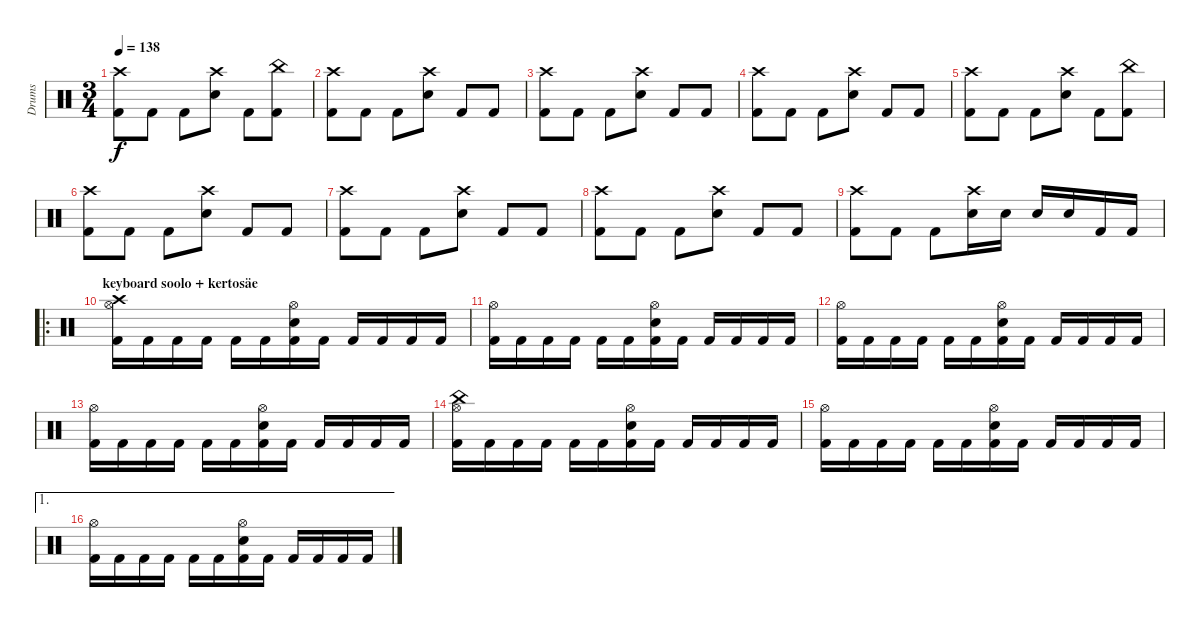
\track ("Drums" "Drums") {instrument percussion}
\staff {score}
\articulation defaults
\ts (3 4)
\tempo 138
\clef neutral
\ks c
("Crash high (hit)" "Kick (hit) 2").8{dy f} "Kick (hit) 2".8 "Kick (hit) 2".8 ("Crash high (hit)" "Snare (hit) 2").8 "Kick (hit) 2".8 ("China (hit)" "Kick (hit) 2").8 |
("Crash high (hit)" "Kick (hit) 2").8 "Kick (hit) 2".8 "Kick (hit) 2".8 ("Crash high (hit)" "Snare (hit) 2").8 "Kick (hit) 2".8 "Kick (hit) 2".8 |
("Crash high (hit)" "Kick (hit) 2").8 "Kick (hit) 2".8 "Kick (hit) 2".8 ("Crash high (hit)" "Snare (hit) 2").8 "Kick (hit) 2".8 "Kick (hit) 2".8 |
("Crash high (hit)" "Kick (hit) 2").8 "Kick (hit) 2".8 "Kick (hit) 2".8 ("Crash high (hit)" "Snare (hit) 2").8 "Kick (hit) 2".8 "Kick (hit) 2".8 |
("Crash high (hit)" "Kick (hit) 2").8 "Kick (hit) 2".8 "Kick (hit) 2".8 ("Crash high (hit)" "Snare (hit) 2").8 "Kick (hit) 2".8 ("China (hit)" "Kick (hit) 2").8 |
("Crash high (hit)" "Kick (hit) 2").8 "Kick (hit) 2".8 "Kick (hit) 2".8 ("Crash high (hit)" "Snare (hit) 2").8 "Kick (hit) 2".8 "Kick (hit) 2".8 |
("Crash high (hit)" "Kick (hit) 2").8 "Kick (hit) 2".8 "Kick (hit) 2".8 ("Crash high (hit)" "Snare (hit) 2").8 "Kick (hit) 2".8 "Kick (hit) 2".8 |
("Crash high (hit)" "Kick (hit) 2").8 "Kick (hit) 2".8 "Kick (hit) 2".8 ("Crash high (hit)" "Snare (hit) 2").8 "Kick (hit) 2".8 "Kick (hit) 2".8 |
("Crash high (hit)" "Kick (hit) 2").8 "Kick (hit) 2".8 "Kick (hit) 2".8 ("Crash high (hit)" "Snare (hit) 2").16 "Snare (hit) 2".16 "Snare (hit) 2".16 "Snare (hit) 2".16 "Kick (hit) 2".16 "Kick (hit) 2".16 |
\ro
\section ("" "keyboard soolo + kertosäe")
("Hi-Hat (open)" "Crash high (hit)" "Kick (hit) 2").16 "Kick (hit) 2".16 "Kick (hit) 2".16 "Kick (hit) 2".16 "Kick (hit) 2".16 "Kick (hit) 2".16 ("Hi-Hat (open)" "Snare (hit) 2" "Kick (hit) 2").16 "Kick (hit) 2".16 "Kick (hit) 2".16 "Kick (hit) 2".16 "Kick (hit) 2".16 "Kick (hit) 2".16 |
("Hi-Hat (open)" "Kick (hit) 2").16 "Kick (hit) 2".16 "Kick (hit) 2".16 "Kick (hit) 2".16 "Kick (hit) 2".16 "Kick (hit) 2".16 ("Hi-Hat (open)" "Snare (hit) 2" "Kick (hit) 2").16 "Kick (hit) 2".16 "Kick (hit) 2".16 "Kick (hit) 2".16 "Kick (hit) 2".16 "Kick (hit) 2".16 |
("Hi-Hat (open)" "Kick (hit) 2").16 "Kick (hit) 2".16 "Kick (hit) 2".16 "Kick (hit) 2".16 "Kick (hit) 2".16 "Kick (hit) 2".16 ("Hi-Hat (open)" "Snare (hit) 2" "Kick (hit) 2").16 "Kick (hit) 2".16 "Kick (hit) 2".16 "Kick (hit) 2".16 "Kick (hit) 2".16 "Kick (hit) 2".16 |
("Hi-Hat (open)" "Kick (hit) 2").16 "Kick (hit) 2".16 "Kick (hit) 2".16 "Kick (hit) 2".16 "Kick (hit) 2".16 "Kick (hit) 2".16 ("Hi-Hat (open)" "Snare (hit) 2" "Kick (hit) 2").16 "Kick (hit) 2".16 "Kick (hit) 2".16 "Kick (hit) 2".16 "Kick (hit) 2".16 "Kick (hit) 2".16 |
("Hi-Hat (open)" "China (hit)" "Kick (hit) 2").16 "Kick (hit) 2".16 "Kick (hit) 2".16 "Kick (hit) 2".16 "Kick (hit) 2".16 "Kick (hit) 2".16 ("Hi-Hat (open)" "Snare (hit) 2" "Kick (hit) 2").16 "Kick (hit) 2".16 "Kick (hit) 2".16 "Kick (hit) 2".16 "Kick (hit) 2".16 "Kick (hit) 2".16 |
("Hi-Hat (open)" "Kick (hit) 2").16 "Kick (hit) 2".16 "Kick (hit) 2".16 "Kick (hit) 2".16 "Kick (hit) 2".16 "Kick (hit) 2".16 ("Hi-Hat (open)" "Snare (hit) 2" "Kick (hit) 2").16 "Kick (hit) 2".16 "Kick (hit) 2".16 "Kick (hit) 2".16 "Kick (hit) 2".16 "Kick (hit) 2".16 |
\ae 1
("Hi-Hat (open)" "Kick (hit) 2").16 "Kick (hit) 2".16 "Kick (hit) 2".16 "Kick (hit) 2".16 "Kick (hit) 2".16 "Kick (hit) 2".16 ("Hi-Hat (open)" "Snare (hit) 2" "Kick (hit) 2").16 "Kick (hit) 2".16 "Kick (hit) 2".16 "Kick (hit) 2".16 "Kick (hit) 2".16 "Kick (hit) 2".16
